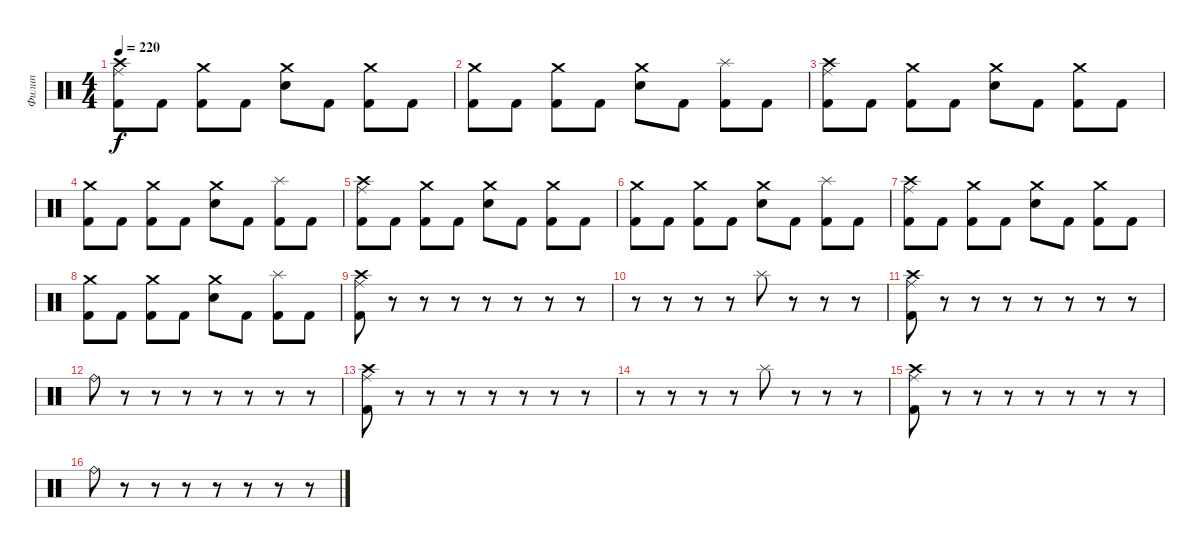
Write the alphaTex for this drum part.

\track ("Филип" "Филип") {instrument percussion}
\staff {score}
\articulation defaults
\ts (4 4)
\tempo 220
\clef neutral
\ks c
("Crash high (hit)" "Ride (middle)" "Kick (hit) 2").8{dy f} "Kick (hit) 2".8 ("Crash medium (hit)" "Kick (hit) 2").8 "Kick (hit) 2".8 ("Crash medium (hit)" "Electric Snare (hit)").8 "Kick (hit) 2".8 ("Crash medium (hit)" "Kick (hit) 2").8 "Kick (hit) 2".8 |
("Crash medium (hit)" "Kick (hit) 2").8 "Kick (hit) 2".8 ("Crash medium (hit)" "Kick (hit) 2").8 "Kick (hit) 2".8 ("Crash medium (hit)" "Electric Snare (hit)").8 "Kick (hit) 2".8 ("Splash (hit)" "Kick (hit) 2").8 "Kick (hit) 2".8 |
("Crash high (hit)" "Ride (middle)" "Kick (hit) 2").8 "Kick (hit) 2".8 ("Crash medium (hit)" "Kick (hit) 2").8 "Kick (hit) 2".8 ("Crash medium (hit)" "Electric Snare (hit)").8 "Kick (hit) 2".8 ("Crash medium (hit)" "Kick (hit) 2").8 "Kick (hit) 2".8 |
("Crash medium (hit)" "Kick (hit) 2").8 "Kick (hit) 2".8 ("Crash medium (hit)" "Kick (hit) 2").8 "Kick (hit) 2".8 ("Crash medium (hit)" "Electric Snare (hit)").8 "Kick (hit) 2".8 ("Splash (hit)" "Kick (hit) 2").8 "Kick (hit) 2".8 |
("Crash high (hit)" "Ride (middle)" "Kick (hit) 2").8 "Kick (hit) 2".8 ("Crash medium (hit)" "Kick (hit) 2").8 "Kick (hit) 2".8 ("Crash medium (hit)" "Electric Snare (hit)").8 "Kick (hit) 2".8 ("Crash medium (hit)" "Kick (hit) 2").8 "Kick (hit) 2".8 |
("Crash medium (hit)" "Kick (hit) 2").8 "Kick (hit) 2".8 ("Crash medium (hit)" "Kick (hit) 2").8 "Kick (hit) 2".8 ("Crash medium (hit)" "Electric Snare (hit)").8 "Kick (hit) 2".8 ("Splash (hit)" "Kick (hit) 2").8 "Kick (hit) 2".8 |
("Crash high (hit)" "Ride (middle)" "Kick (hit) 2").8 "Kick (hit) 2".8 ("Crash medium (hit)" "Kick (hit) 2").8 "Kick (hit) 2".8 ("Crash medium (hit)" "Electric Snare (hit)").8 "Kick (hit) 2".8 ("Crash medium (hit)" "Kick (hit) 2").8 "Kick (hit) 2".8 |
("Crash medium (hit)" "Kick (hit) 2").8 "Kick (hit) 2".8 ("Crash medium (hit)" "Kick (hit) 2").8 "Kick (hit) 2".8 ("Crash medium (hit)" "Electric Snare (hit)").8 "Kick (hit) 2".8 ("Splash (hit)" "Kick (hit) 2").8 "Kick (hit) 2".8 |
("Crash high (hit)" "Ride (middle)" "Kick (hit) 2").8 r.8 r.8 r.8 r.8 r.8 r.8 r.8 |
r.8 r.8 r.8 r.8 "Splash (hit)".8 r.8 r.8 r.8 |
("Crash high (hit)" "Ride (middle)" "Kick (hit) 2").8 r.8 r.8 r.8 r.8 r.8 r.8 r.8 |
"Ride (bell)".8 r.8 r.8 r.8 r.8 r.8 r.8 r.8 |
("Crash high (hit)" "Ride (middle)" "Kick (hit) 2").8 r.8 r.8 r.8 r.8 r.8 r.8 r.8 |
r.8 r.8 r.8 r.8 "Splash (hit)".8 r.8 r.8 r.8 |
("Crash high (hit)" "Ride (middle)" "Kick (hit) 2").8 r.8 r.8 r.8 r.8 r.8 r.8 r.8 |
"Ride (bell)".8 r.8 r.8 r.8 r.8 r.8 r.8 r.8
